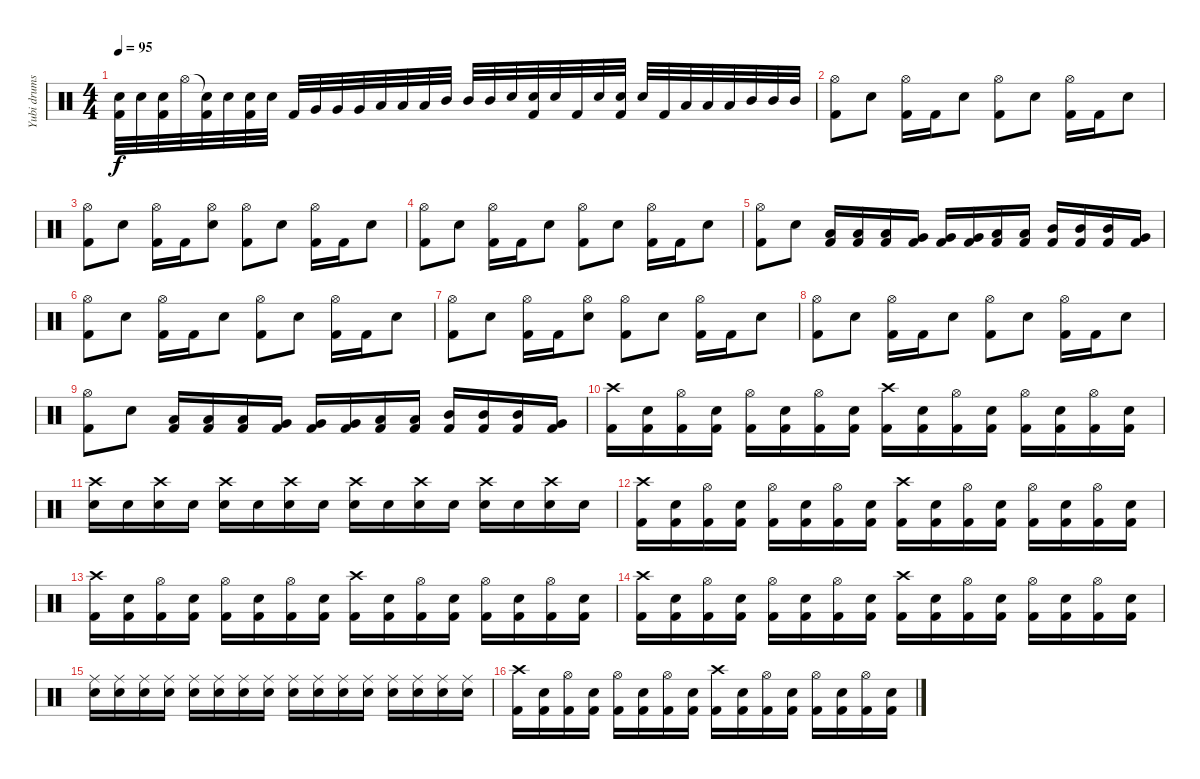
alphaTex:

\track ("Yubi drums" "Yubi drums") {instrument percussion}
\staff {score}
\articulation defaults
\ts (4 4)
\tempo 95
\clef neutral
\ks c
("Snare (hit) 2" "Kick (hit) 2").32{dy f} "Snare (hit) 2".32 ("Snare (hit) 2" "Kick (hit) 2").32 "Hi-Hat (open)".32 ("Snare (hit)"{t} "Kick (hit) 2").32 "Snare (hit) 2".32 ("Snare (hit) 2" "Kick (hit) 2").32 "Snare (hit) 2".32 "Kick (hit) 2".32 "Very Low Tom (hit)".32 "Very Low Tom (hit)".32 "Very Low Tom (hit)".32 "Low Tom (hit)".32 "Low Tom (hit)".32 "Low Tom (hit)".32 "Mid Tom (hit)".32 "Mid Tom (hit)".32 "Mid Tom (hit)".32 "Snare (hit) 2".32 ("Snare (hit) 2" "Kick (hit) 2").32 "Snare (hit) 2".32 "Kick (hit) 2".32 "Snare (hit) 2".32 ("Snare (hit) 2" "Kick (hit) 2").32 "Snare (hit) 2".32 "Kick (hit) 2".32 "Low Tom (hit)".32 "Low Tom (hit)".32 "Low Tom (hit)".32 "Mid Tom (hit)".32 "Mid Tom (hit)".32 "Mid Tom (hit)".32 |
("Hi-Hat (open)" "Kick (hit) 2").8 "Snare (hit) 2".8 ("Hi-Hat (open)" "Kick (hit) 2").16 "Kick (hit) 2".16 "Snare (hit) 2".8 ("Hi-Hat (open)" "Kick (hit) 2").8 "Snare (hit) 2".8 ("Hi-Hat (open)" "Kick (hit) 2").16 "Kick (hit) 2".16 "Snare (hit) 2".8 |
("Hi-Hat (open)" "Kick (hit) 2").8 "Snare (hit) 2".8 ("Hi-Hat (open)" "Kick (hit) 2").16 "Kick (hit) 2".16 ("Hi-Hat (open)" "Snare (hit) 2").8 ("Hi-Hat (open)" "Kick (hit) 2").8 "Snare (hit) 2".8 ("Hi-Hat (open)" "Kick (hit) 2").16 "Kick (hit) 2".16 "Snare (hit) 2".8 |
("Hi-Hat (open)" "Kick (hit) 2").8 "Snare (hit) 2".8 ("Hi-Hat (open)" "Kick (hit) 2").16 "Kick (hit) 2".16 "Snare (hit) 2".8 ("Hi-Hat (open)" "Kick (hit) 2").8 "Snare (hit) 2".8 ("Hi-Hat (open)" "Kick (hit) 2").16 "Kick (hit) 2".16 "Snare (hit) 2".8 |
("Hi-Hat (open)" "Kick (hit) 2").8 "Snare (hit) 2".8 ("Low Tom (hit)" "Kick (hit) 2").16 ("Low Tom (hit)" "Kick (hit) 2").16 ("Low Tom (hit)" "Kick (hit) 2").16 ("Very Low Tom (hit)" "Kick (hit) 2").16 ("Very Low Tom (hit)" "Kick (hit) 2").16 ("Very Low Tom (hit)" "Kick (hit) 2").16 ("Low Tom (hit)" "Kick (hit) 2").16 ("Low Tom (hit)" "Kick (hit) 2").16 ("Mid Tom (hit)" "Kick (hit) 2").16 ("Mid Tom (hit)" "Kick (hit) 2").16 ("Mid Tom (hit)" "Kick (hit) 2").16 ("Very Low Tom (hit)" "Kick (hit) 2").16 |
("Hi-Hat (open)" "Kick (hit) 2").8 "Snare (hit) 2".8 ("Hi-Hat (open)" "Kick (hit) 2").16 "Kick (hit) 2".16 "Snare (hit) 2".8 ("Hi-Hat (open)" "Kick (hit) 2").8 "Snare (hit) 2".8 ("Hi-Hat (open)" "Kick (hit) 2").16 "Kick (hit) 2".16 "Snare (hit) 2".8 |
("Hi-Hat (open)" "Kick (hit) 2").8 "Snare (hit) 2".8 ("Hi-Hat (open)" "Kick (hit) 2").16 "Kick (hit) 2".16 ("Hi-Hat (open)" "Snare (hit) 2").8 ("Hi-Hat (open)" "Kick (hit) 2").8 "Snare (hit) 2".8 ("Hi-Hat (open)" "Kick (hit) 2").16 "Kick (hit) 2".16 "Snare (hit) 2".8 |
("Hi-Hat (open)" "Kick (hit) 2").8 "Snare (hit) 2".8 ("Hi-Hat (open)" "Kick (hit) 2").16 "Kick (hit) 2".16 "Snare (hit) 2".8 ("Hi-Hat (open)" "Kick (hit) 2").8 "Snare (hit) 2".8 ("Hi-Hat (open)" "Kick (hit) 2").16 "Kick (hit) 2".16 "Snare (hit) 2".8 |
("Hi-Hat (open)" "Kick (hit) 2").8 "Snare (hit) 2".8 ("Low Tom (hit)" "Kick (hit) 2").16 ("Low Tom (hit)" "Kick (hit) 2").16 ("Low Tom (hit)" "Kick (hit) 2").16 ("Very Low Tom (hit)" "Kick (hit) 2").16 ("Very Low Tom (hit)" "Kick (hit) 2").16 ("Very Low Tom (hit)" "Kick (hit) 2").16 ("Low Tom (hit)" "Kick (hit) 2").16 ("Low Tom (hit)" "Kick (hit) 2").16 ("Mid Tom (hit)" "Kick (hit) 2").16 ("Mid Tom (hit)" "Kick (hit) 2").16 ("Mid Tom (hit)" "Kick (hit) 2").16 ("Very Low Tom (hit)" "Kick (hit) 2").16 |
("Kick (hit) 2" "Crash high (hit)").16 ("Kick (hit) 2" "Snare (hit) 2").16 ("Kick (hit) 2" "Hi-Hat (open)").16 ("Kick (hit) 2" "Snare (hit) 2").16 ("Kick (hit) 2" "Hi-Hat (open)").16 ("Kick (hit) 2" "Snare (hit) 2").16 ("Kick (hit) 2" "Hi-Hat (open)").16 ("Kick (hit) 2" "Snare (hit) 2").16 ("Kick (hit) 2" "Crash high (hit)").16 ("Kick (hit) 2" "Snare (hit) 2").16 ("Kick (hit) 2" "Hi-Hat (open)").16 ("Kick (hit) 2" "Snare (hit) 2").16 ("Kick (hit) 2" "Hi-Hat (open)").16 ("Kick (hit) 2" "Snare (hit) 2").16 ("Kick (hit) 2" "Hi-Hat (open)").16 ("Kick (hit) 2" "Snare (hit) 2").16 |
("Snare (hit) 2" "Crash high (hit)").16 "Snare (hit) 2".16 ("Snare (hit) 2" "Crash high (hit)").16 "Snare (hit) 2".16 ("Snare (hit) 2" "Crash high (hit)").16 "Snare (hit) 2".16 ("Snare (hit) 2" "Crash high (hit)").16 "Snare (hit) 2".16 ("Snare (hit) 2" "Crash high (hit)").16 "Snare (hit) 2".16 ("Snare (hit) 2" "Crash high (hit)").16 "Snare (hit) 2".16 ("Snare (hit) 2" "Crash high (hit)").16 "Snare (hit) 2".16 ("Snare (hit) 2" "Crash high (hit)").16 "Snare (hit) 2".16 |
("Kick (hit) 2" "Crash high (hit)").16 ("Kick (hit) 2" "Snare (hit) 2").16 ("Kick (hit) 2" "Hi-Hat (open)").16 ("Kick (hit) 2" "Snare (hit) 2").16 ("Kick (hit) 2" "Hi-Hat (open)").16 ("Kick (hit) 2" "Snare (hit) 2").16 ("Kick (hit) 2" "Hi-Hat (open)").16 ("Kick (hit) 2" "Snare (hit) 2").16 ("Kick (hit) 2" "Crash high (hit)").16 ("Kick (hit) 2" "Snare (hit) 2").16 ("Kick (hit) 2" "Hi-Hat (open)").16 ("Kick (hit) 2" "Snare (hit) 2").16 ("Kick (hit) 2" "Hi-Hat (open)").16 ("Kick (hit) 2" "Snare (hit) 2").16 ("Kick (hit) 2" "Hi-Hat (open)").16 ("Kick (hit) 2" "Snare (hit) 2").16 |
("Kick (hit) 2" "Crash high (hit)").16 ("Kick (hit) 2" "Snare (hit) 2").16 ("Kick (hit) 2" "Hi-Hat (open)").16 ("Kick (hit) 2" "Snare (hit) 2").16 ("Kick (hit) 2" "Hi-Hat (open)").16 ("Kick (hit) 2" "Snare (hit) 2").16 ("Kick (hit) 2" "Hi-Hat (open)").16 ("Kick (hit) 2" "Snare (hit) 2").16 ("Kick (hit) 2" "Crash high (hit)").16 ("Kick (hit) 2" "Snare (hit) 2").16 ("Kick (hit) 2" "Hi-Hat (open)").16 ("Kick (hit) 2" "Snare (hit) 2").16 ("Kick (hit) 2" "Hi-Hat (open)").16 ("Kick (hit) 2" "Snare (hit) 2").16 ("Kick (hit) 2" "Hi-Hat (open)").16 ("Kick (hit) 2" "Snare (hit) 2").16 |
("Kick (hit) 2" "Crash high (hit)").16 ("Kick (hit) 2" "Snare (hit) 2").16 ("Kick (hit) 2" "Hi-Hat (open)").16 ("Kick (hit) 2" "Snare (hit) 2").16 ("Kick (hit) 2" "Hi-Hat (open)").16 ("Kick (hit) 2" "Snare (hit) 2").16 ("Kick (hit) 2" "Hi-Hat (open)").16 ("Kick (hit) 2" "Snare (hit) 2").16 ("Kick (hit) 2" "Crash high (hit)").16 ("Kick (hit) 2" "Snare (hit) 2").16 ("Kick (hit) 2" "Hi-Hat (open)").16 ("Kick (hit) 2" "Snare (hit) 2").16 ("Kick (hit) 2" "Hi-Hat (open)").16 ("Kick (hit) 2" "Snare (hit) 2").16 ("Kick (hit) 2" "Hi-Hat (open)").16 ("Kick (hit) 2" "Snare (hit) 2").16 |
("Snare (hit) 2" "Ride (middle)").16 ("Snare (hit) 2" "Ride (middle)").16 ("Snare (hit) 2" "Ride (middle)").16 ("Snare (hit) 2" "Ride (middle)").16 ("Snare (hit) 2" "Ride (middle)").16 ("Snare (hit) 2" "Ride (middle)").16 ("Snare (hit) 2" "Ride (middle)").16 ("Snare (hit) 2" "Ride (middle)").16 ("Snare (hit) 2" "Ride (middle)").16 ("Snare (hit) 2" "Ride (middle)").16 ("Snare (hit) 2" "Ride (middle)").16 ("Snare (hit) 2" "Ride (middle)").16 ("Snare (hit) 2" "Ride (middle)").16 ("Snare (hit) 2" "Ride (middle)").16 ("Snare (hit) 2" "Ride (middle)").16 ("Snare (hit) 2" "Ride (middle)").16 |
("Kick (hit) 2" "Crash high (hit)").16 ("Kick (hit) 2" "Snare (hit) 2").16 ("Kick (hit) 2" "Hi-Hat (open)").16 ("Kick (hit) 2" "Snare (hit) 2").16 ("Kick (hit) 2" "Hi-Hat (open)").16 ("Kick (hit) 2" "Snare (hit) 2").16 ("Kick (hit) 2" "Hi-Hat (open)").16 ("Kick (hit) 2" "Snare (hit) 2").16 ("Kick (hit) 2" "Crash high (hit)").16 ("Kick (hit) 2" "Snare (hit) 2").16 ("Kick (hit) 2" "Hi-Hat (open)").16 ("Kick (hit) 2" "Snare (hit) 2").16 ("Kick (hit) 2" "Hi-Hat (open)").16 ("Kick (hit) 2" "Snare (hit) 2").16 ("Kick (hit) 2" "Hi-Hat (open)").16 ("Kick (hit) 2" "Snare (hit) 2").16
